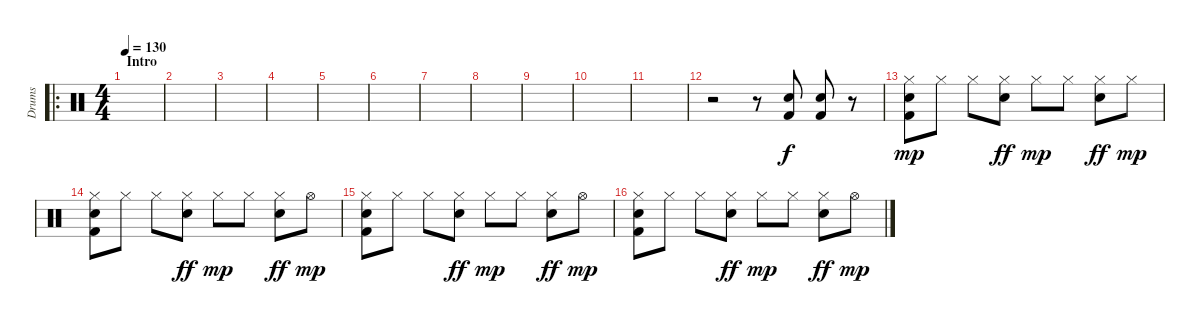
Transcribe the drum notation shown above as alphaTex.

\track ("Drums" "Drums") {instrument percussion}
\staff {score}
\articulation defaults
\ro
\ts (4 4)
\section ("" "Intro")
\tempo 130
\clef neutral
\ks c
|
|
|
|
|
|
|
|
|
|
|
r.2 r.8 ("Snare (hit) 2" "Kick (hit) 2").8 ("Snare (hit) 2" "Kick (hit) 2").8 r.8 |
("Hi-Hat (closed)" "Snare (hit) 2" "Kick (hit) 2").8{dy mp} "Hi-Hat (closed)".8 "Hi-Hat (closed)".8 ("Hi-Hat (closed)" "Snare (hit) 2").8{dy ff} "Hi-Hat (closed)".8{dy mp} "Hi-Hat (closed)".8 ("Hi-Hat (closed)" "Snare (hit) 2").8{dy ff} "Hi-Hat (closed)".8{dy mp} |
("Hi-Hat (closed)" "Snare (hit) 2" "Kick (hit) 2").8 "Hi-Hat (closed)".8 "Hi-Hat (closed)".8 ("Hi-Hat (closed)" "Snare (hit) 2").8{dy ff} "Hi-Hat (closed)".8{dy mp} "Hi-Hat (closed)".8 ("Hi-Hat (closed)" "Snare (hit) 2").8{dy ff} "Hi-Hat (open)".8{dy mp} |
("Hi-Hat (closed)" "Snare (hit) 2" "Kick (hit) 2").8 "Hi-Hat (closed)".8 "Hi-Hat (closed)".8 ("Hi-Hat (closed)" "Snare (hit) 2").8{dy ff} "Hi-Hat (closed)".8{dy mp} "Hi-Hat (closed)".8 ("Hi-Hat (closed)" "Snare (hit) 2").8{dy ff} "Hi-Hat (open)".8{dy mp} |
("Hi-Hat (closed)" "Snare (hit) 2" "Kick (hit) 2").8 "Hi-Hat (closed)".8 "Hi-Hat (closed)".8 ("Hi-Hat (closed)" "Snare (hit) 2").8{dy ff} "Hi-Hat (closed)".8{dy mp} "Hi-Hat (closed)".8 ("Hi-Hat (closed)" "Snare (hit) 2").8{dy ff} "Hi-Hat (open)".8{dy mp}
